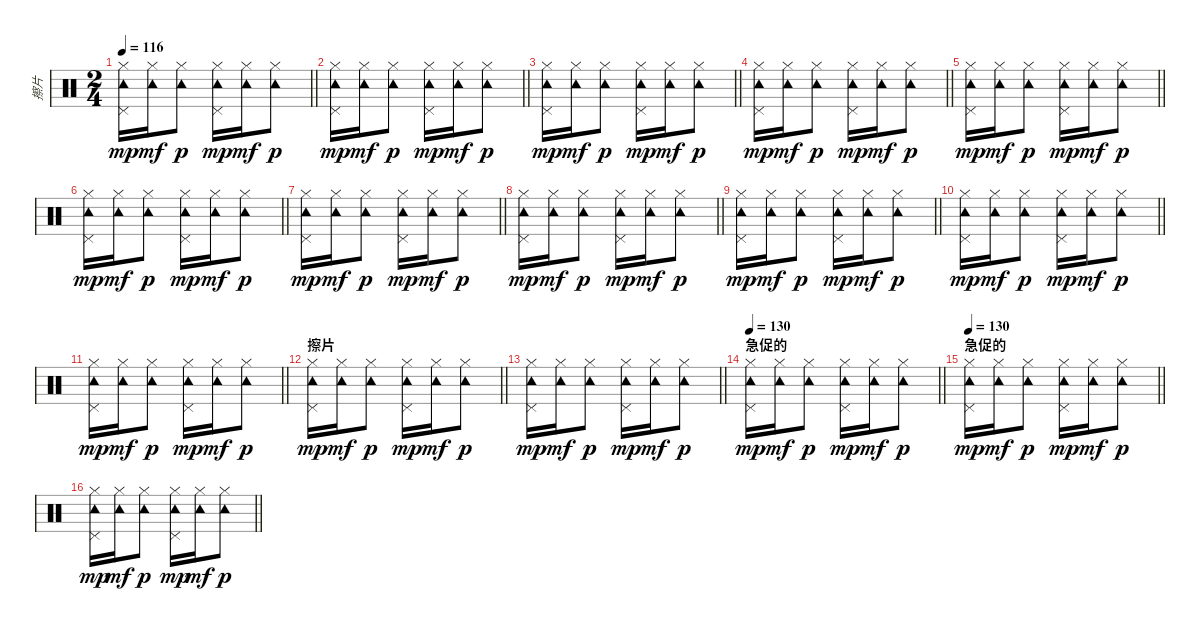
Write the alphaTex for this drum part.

\track ("擦片" "擦片") {instrument percussion}
\staff {score}
\articulation defaults
\ts (2 4)
\tempo 116
\clef neutral
\barLineRight lightlight
\ks c
("Hi-Hat (closed)" "Tambourine (hit)" "Pedal Hi-Hat (hit)").16{dy mp} ("Hi-Hat (closed)" "Tambourine (hit)").16{dy mf} ("Hi-Hat (closed)" "Tambourine (hit)").8{dy p} ("Hi-Hat (closed)" "Tambourine (hit)" "Pedal Hi-Hat (hit)").16{dy mp} ("Hi-Hat (closed)" "Tambourine (hit)").16{dy mf} ("Hi-Hat (closed)" "Tambourine (hit)").8{dy p} |
\barLineRight lightlight
("Hi-Hat (closed)" "Tambourine (hit)" "Pedal Hi-Hat (hit)").16{dy mp} ("Hi-Hat (closed)" "Tambourine (hit)").16{dy mf} ("Hi-Hat (closed)" "Tambourine (hit)").8{dy p} ("Hi-Hat (closed)" "Tambourine (hit)" "Pedal Hi-Hat (hit)").16{dy mp} ("Hi-Hat (closed)" "Tambourine (hit)").16{dy mf} ("Hi-Hat (closed)" "Tambourine (hit)").8{dy p} |
\barLineRight lightlight
("Hi-Hat (closed)" "Tambourine (hit)" "Pedal Hi-Hat (hit)").16{dy mp} ("Hi-Hat (closed)" "Tambourine (hit)").16{dy mf} ("Hi-Hat (closed)" "Tambourine (hit)").8{dy p} ("Hi-Hat (closed)" "Tambourine (hit)" "Pedal Hi-Hat (hit)").16{dy mp} ("Hi-Hat (closed)" "Tambourine (hit)").16{dy mf} ("Hi-Hat (closed)" "Tambourine (hit)").8{dy p} |
\barLineRight lightlight
("Hi-Hat (closed)" "Tambourine (hit)" "Pedal Hi-Hat (hit)").16{dy mp} ("Hi-Hat (closed)" "Tambourine (hit)").16{dy mf} ("Hi-Hat (closed)" "Tambourine (hit)").8{dy p} ("Hi-Hat (closed)" "Tambourine (hit)" "Pedal Hi-Hat (hit)").16{dy mp} ("Hi-Hat (closed)" "Tambourine (hit)").16{dy mf} ("Hi-Hat (closed)" "Tambourine (hit)").8{dy p} |
\barLineRight lightlight
("Hi-Hat (closed)" "Tambourine (hit)" "Pedal Hi-Hat (hit)").16{dy mp} ("Hi-Hat (closed)" "Tambourine (hit)").16{dy mf} ("Hi-Hat (closed)" "Tambourine (hit)").8{dy p} ("Hi-Hat (closed)" "Tambourine (hit)" "Pedal Hi-Hat (hit)").16{dy mp} ("Hi-Hat (closed)" "Tambourine (hit)").16{dy mf} ("Hi-Hat (closed)" "Tambourine (hit)").8{dy p} |
\barLineRight lightlight
("Hi-Hat (closed)" "Tambourine (hit)" "Pedal Hi-Hat (hit)").16{dy mp} ("Hi-Hat (closed)" "Tambourine (hit)").16{dy mf} ("Hi-Hat (closed)" "Tambourine (hit)").8{dy p} ("Hi-Hat (closed)" "Tambourine (hit)" "Pedal Hi-Hat (hit)").16{dy mp} ("Hi-Hat (closed)" "Tambourine (hit)").16{dy mf} ("Hi-Hat (closed)" "Tambourine (hit)").8{dy p} |
\barLineRight lightlight
("Hi-Hat (closed)" "Tambourine (hit)" "Pedal Hi-Hat (hit)").16{dy mp} ("Hi-Hat (closed)" "Tambourine (hit)").16{dy mf} ("Hi-Hat (closed)" "Tambourine (hit)").8{dy p} ("Hi-Hat (closed)" "Tambourine (hit)" "Pedal Hi-Hat (hit)").16{dy mp} ("Hi-Hat (closed)" "Tambourine (hit)").16{dy mf} ("Hi-Hat (closed)" "Tambourine (hit)").8{dy p} |
\barLineRight lightlight
("Hi-Hat (closed)" "Tambourine (hit)" "Pedal Hi-Hat (hit)").16{dy mp} ("Hi-Hat (closed)" "Tambourine (hit)").16{dy mf} ("Hi-Hat (closed)" "Tambourine (hit)").8{dy p} ("Hi-Hat (closed)" "Tambourine (hit)" "Pedal Hi-Hat (hit)").16{dy mp} ("Hi-Hat (closed)" "Tambourine (hit)").16{dy mf} ("Hi-Hat (closed)" "Tambourine (hit)").8{dy p} |
\barLineRight lightlight
("Hi-Hat (closed)" "Tambourine (hit)" "Pedal Hi-Hat (hit)").16{dy mp} ("Hi-Hat (closed)" "Tambourine (hit)").16{dy mf} ("Hi-Hat (closed)" "Tambourine (hit)").8{dy p} ("Hi-Hat (closed)" "Tambourine (hit)" "Pedal Hi-Hat (hit)").16{dy mp} ("Hi-Hat (closed)" "Tambourine (hit)").16{dy mf} ("Hi-Hat (closed)" "Tambourine (hit)").8{dy p} |
\barLineRight lightlight
("Hi-Hat (closed)" "Tambourine (hit)" "Pedal Hi-Hat (hit)").16{dy mp} ("Hi-Hat (closed)" "Tambourine (hit)").16{dy mf} ("Hi-Hat (closed)" "Tambourine (hit)").8{dy p} ("Hi-Hat (closed)" "Tambourine (hit)" "Pedal Hi-Hat (hit)").16{dy mp} ("Hi-Hat (closed)" "Tambourine (hit)").16{dy mf} ("Hi-Hat (closed)" "Tambourine (hit)").8{dy p} |
\barLineRight lightlight
("Hi-Hat (closed)" "Tambourine (hit)" "Pedal Hi-Hat (hit)").16{dy mp} ("Hi-Hat (closed)" "Tambourine (hit)").16{dy mf} ("Hi-Hat (closed)" "Tambourine (hit)").8{dy p} ("Hi-Hat (closed)" "Tambourine (hit)" "Pedal Hi-Hat (hit)").16{dy mp} ("Hi-Hat (closed)" "Tambourine (hit)").16{dy mf} ("Hi-Hat (closed)" "Tambourine (hit)").8{dy p} |
\section ("" "擦片")
\barLineRight lightlight
("Hi-Hat (closed)" "Tambourine (hit)" "Pedal Hi-Hat (hit)").16{dy mp} ("Hi-Hat (closed)" "Tambourine (hit)").16{dy mf} ("Hi-Hat (closed)" "Tambourine (hit)").8{dy p} ("Hi-Hat (closed)" "Tambourine (hit)" "Pedal Hi-Hat (hit)").16{dy mp} ("Hi-Hat (closed)" "Tambourine (hit)").16{dy mf} ("Hi-Hat (closed)" "Tambourine (hit)").8{dy p} |
\barLineRight lightlight
("Hi-Hat (closed)" "Tambourine (hit)" "Pedal Hi-Hat (hit)").16{dy mp} ("Hi-Hat (closed)" "Tambourine (hit)").16{dy mf} ("Hi-Hat (closed)" "Tambourine (hit)").8{dy p} ("Hi-Hat (closed)" "Tambourine (hit)" "Pedal Hi-Hat (hit)").16{dy mp} ("Hi-Hat (closed)" "Tambourine (hit)").16{dy mf} ("Hi-Hat (closed)" "Tambourine (hit)").8{dy p} |
\section ("" "急促的")
\tempo 130
\barLineRight lightlight
("Hi-Hat (closed)" "Tambourine (hit)" "Pedal Hi-Hat (hit)").16{dy mp} ("Hi-Hat (closed)" "Tambourine (hit)").16{dy mf} ("Hi-Hat (closed)" "Tambourine (hit)").8{dy p} ("Hi-Hat (closed)" "Tambourine (hit)" "Pedal Hi-Hat (hit)").16{dy mp} ("Hi-Hat (closed)" "Tambourine (hit)").16{dy mf} ("Hi-Hat (closed)" "Tambourine (hit)").8{dy p} |
\section ("" "急促的")
\tempo 130
\barLineRight lightlight
("Hi-Hat (closed)" "Tambourine (hit)" "Pedal Hi-Hat (hit)").16{dy mp} ("Hi-Hat (closed)" "Tambourine (hit)").16{dy mf} ("Hi-Hat (closed)" "Tambourine (hit)").8{dy p} ("Hi-Hat (closed)" "Tambourine (hit)" "Pedal Hi-Hat (hit)").16{dy mp} ("Hi-Hat (closed)" "Tambourine (hit)").16{dy mf} ("Hi-Hat (closed)" "Tambourine (hit)").8{dy p} |
\barLineRight lightlight
("Hi-Hat (closed)" "Tambourine (hit)" "Pedal Hi-Hat (hit)").16{dy mp} ("Hi-Hat (closed)" "Tambourine (hit)").16{dy mf} ("Hi-Hat (closed)" "Tambourine (hit)").8{dy p} ("Hi-Hat (closed)" "Tambourine (hit)" "Pedal Hi-Hat (hit)").16{dy mp} ("Hi-Hat (closed)" "Tambourine (hit)").16{dy mf} ("Hi-Hat (closed)" "Tambourine (hit)").8{dy p}
